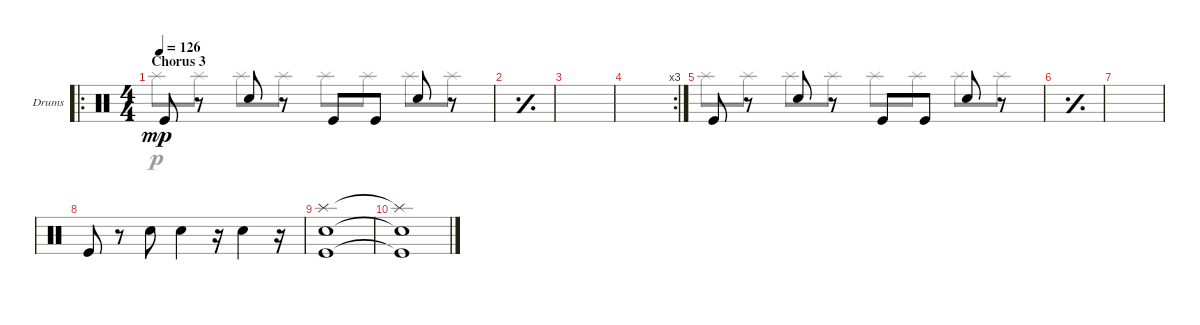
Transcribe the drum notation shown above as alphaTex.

\defaultSystemsLayout 4
\bracketExtendMode groupsimilarinstruments
\firstSystemTrackNameOrientation horizontal
\otherSystemsTrackNameOrientation horizontal
\track ("Drumkit" "Drums") {instrument percussion}
\staff {score}
\articulation defaults
\voice
\ro
\ts (4 4)
\section ("" "Chorus 3")
\tempo 126
\clef neutral
\ks c "Kick (hit)".8{dy mp}
r.8 "Snare (hit) 2".8 r.8 "Kick (hit)".8 "Kick (hit)".8 "Snare (hit) 2".8 r.8 |
\simile simple
|
|
\rc 3
|
\simile none "Kick (hit)".8
r.8 "Snare (hit) 2".8 r.8 "Kick (hit)".8 "Kick (hit)".8 "Snare (hit) 2".8 r.8 |
\simile simple
|
|
\simile none "Kick (hit)".8
r.8 "Snare (hit) 2".8 "Snare (hit) 2".4 r.16 "Snare (hit) 2".4 r.16 |
("Kick (hit)" "Snare (hit) 2" "Splash (hit)").1 |
("Kick (hit)"{t} "Snare (hit) 2"{t} "Splash (hit)"{t}).1
\voice
\clef neutral
\ottava regular
\simile none
\ks c "Splash (hit)".8{dy p} "Splash (hit)".8 "Splash (hit)".8 "Splash (hit)".8 "Splash (hit)".8 "Splash (hit)".8 "Splash (hit)".8 "Splash (hit)".8
|
\simile simple
|
|
|
\simile none "Splash (hit)".8 "Splash (hit)".8 "Splash (hit)".8 "Splash (hit)".8 "Splash (hit)".8 "Splash (hit)".8 "Splash (hit)".8 "Splash (hit)".8
|
\simile simple
|
|
\simile none
|
|
